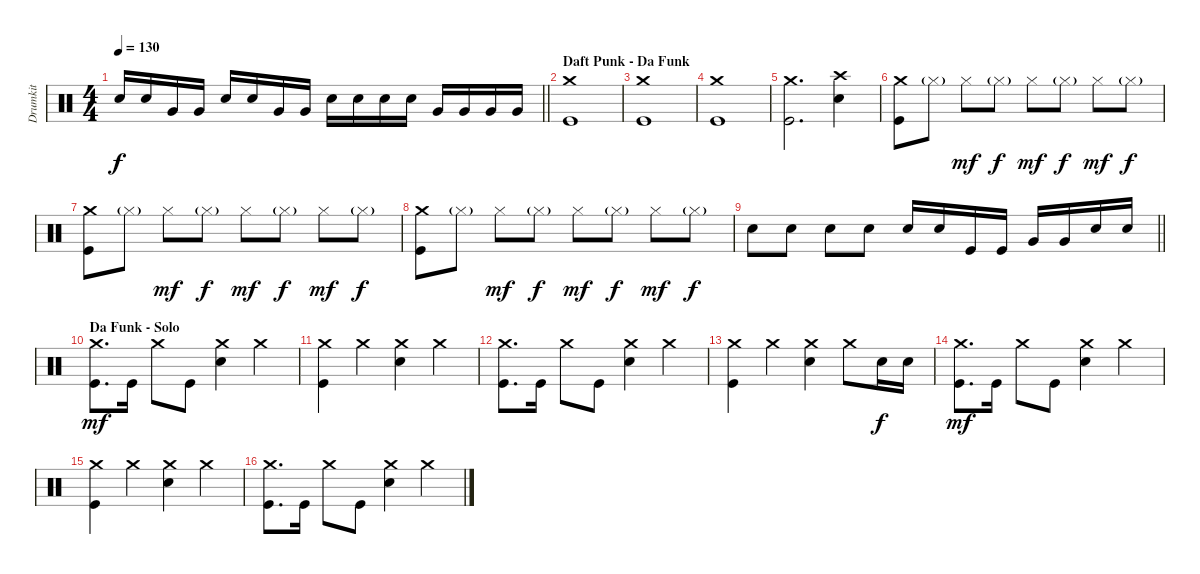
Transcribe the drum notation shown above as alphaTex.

\track ("Drumkit" "Drumkit") {instrument percussion}
\staff {score}
\articulation defaults
\ts (4 4)
\tempo 130
\clef neutral
\barLineRight lightlight
\ks c "Snare (hit) 2".16{dy f} "Snare (hit) 2".16 "Very Low Tom (hit)".16 "Very Low Tom (hit)".16 "Snare (hit) 2".16 "Snare (hit) 2".16 "Very Low Tom (hit)".16 "Very Low Tom (hit)".16 "Snare (hit) 2".16 "Snare (hit) 2".16 "Snare (hit) 2".16 "Snare (hit) 2".16 "Very Low Tom (hit)".16 "Very Low Tom (hit)".16 "Very Low Tom (hit)".16 "Very Low Tom (hit)".16
|
\section ("" "Daft Punk - Da Funk ")
("Kick (hit)" "Crash medium (hit)").1 |
("Kick (hit)" "Crash medium (hit)").1 |
("Kick (hit)" "Crash medium (hit)").1 |
("Kick (hit)" "Crash medium (hit)").2{d} ("Snare (hit) 2" "Crash high (hit)").4 |
("Kick (hit)" "Crash medium (hit)").8 "Hi-Hat (closed)"{g}.8 "Hi-Hat (closed)".8{dy mf} "Hi-Hat (closed)"{g}.8{dy f} "Hi-Hat (closed)".8{dy mf} "Hi-Hat (closed)"{g}.8{dy f} "Hi-Hat (closed)".8{dy mf} "Hi-Hat (closed)"{g}.8{dy f} |
("Kick (hit)" "Crash medium (hit)").8 "Hi-Hat (closed)"{g}.8 "Hi-Hat (closed)".8{dy mf} "Hi-Hat (closed)"{g}.8{dy f} "Hi-Hat (closed)".8{dy mf} "Hi-Hat (closed)"{g}.8{dy f} "Hi-Hat (closed)".8{dy mf} "Hi-Hat (closed)"{g}.8{dy f} |
("Kick (hit)" "Crash medium (hit)").8 "Hi-Hat (closed)"{g}.8 "Hi-Hat (closed)".8{dy mf} "Hi-Hat (closed)"{g}.8{dy f} "Hi-Hat (closed)".8{dy mf} "Hi-Hat (closed)"{g}.8{dy f} "Hi-Hat (closed)".8{dy mf} "Hi-Hat (closed)"{g}.8{dy f} |
\barLineRight lightlight "Snare (hit) 2".8 "Snare (hit) 2".8 "Snare (hit) 2".8 "Snare (hit) 2".8 "Snare (hit) 2".16 "Snare (hit) 2".16 "Kick (hit)".16 "Kick (hit)".16 "Very Low Tom (hit)".16 "Very Low Tom (hit)".16 "Snare (hit) 2".16 "Snare (hit) 2".16
|
\section ("" "Da Funk - Solo")
("Kick (hit)" "Crash medium (hit)").8{d dy mf} "Kick (hit)".16 "Crash medium (hit)".8 "Kick (hit)".8 ("Crash medium (hit)" "Snare (hit) 2").4 "Crash medium (hit)".4 |
("Kick (hit)" "Crash medium (hit)").4 "Crash medium (hit)".4 ("Crash medium (hit)" "Snare (hit) 2").4 "Crash medium (hit)".4 |
("Kick (hit)" "Crash medium (hit)").8{d} "Kick (hit)".16 "Crash medium (hit)".8 "Kick (hit)".8 ("Crash medium (hit)" "Snare (hit) 2").4 "Crash medium (hit)".4 |
("Kick (hit)" "Crash medium (hit)").4 "Crash medium (hit)".4 ("Crash medium (hit)" "Snare (hit) 2").4 "Crash medium (hit)".8 "Snare (hit) 2".16{dy f} "Snare (hit) 2".16 |
("Kick (hit)" "Crash medium (hit)").8{d dy mf} "Kick (hit)".16 "Crash medium (hit)".8 "Kick (hit)".8 ("Crash medium (hit)" "Snare (hit) 2").4 "Crash medium (hit)".4 |
("Kick (hit)" "Crash medium (hit)").4 "Crash medium (hit)".4 ("Crash medium (hit)" "Snare (hit) 2").4 "Crash medium (hit)".4 |
("Kick (hit)" "Crash medium (hit)").8{d} "Kick (hit)".16 "Crash medium (hit)".8 "Kick (hit)".8 ("Crash medium (hit)" "Snare (hit) 2").4 "Crash medium (hit)".4
